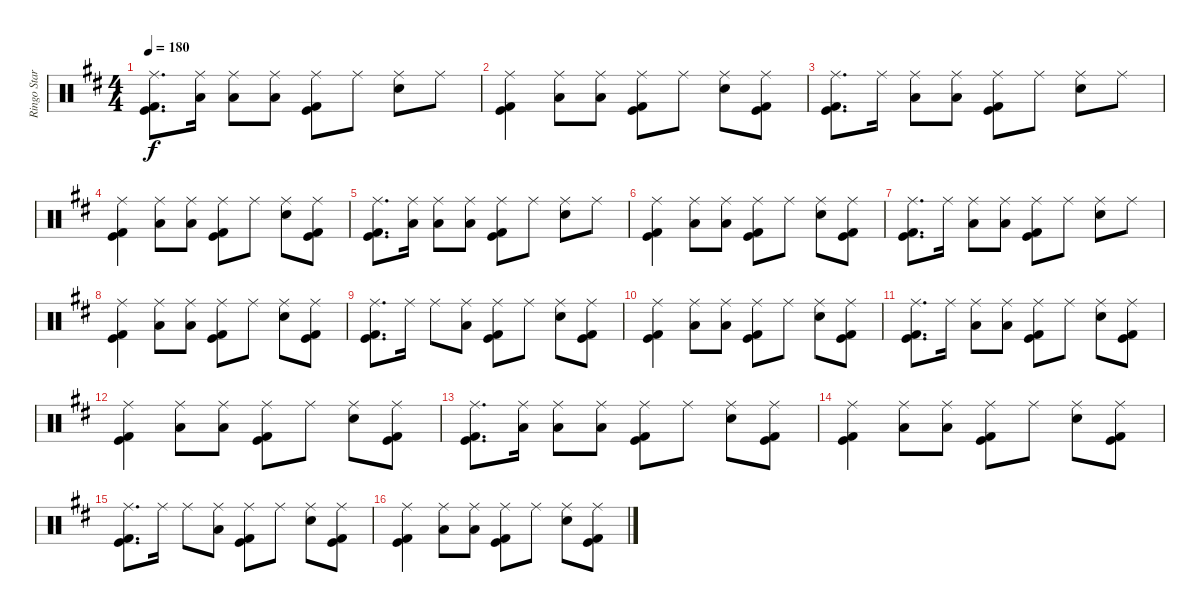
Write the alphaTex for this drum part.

\track ("Ringo Starr" "Ringo Star") {instrument percussion}
\staff {score}
\articulation defaults
\ts (4 4)
\tempo 180
\clef neutral
\ks d
("Ride (middle)" "Kick (hit) 2" "Kick (hit)").8{d dy f} ("Ride (middle)" "Low Tom (hit)").16 ("Ride (middle)" "Low Tom (hit)").8 ("Ride (middle)" "Low Tom (hit)").8 ("Ride (middle)" "Kick (hit) 2" "Kick (hit)").8 "Ride (middle)".8 ("Ride (middle)" "Electric Snare (hit)").8 "Ride (middle)".8 |
("Ride (middle)" "Kick (hit) 2" "Kick (hit)").4 ("Ride (middle)" "Low Tom (hit)").8 ("Ride (middle)" "Low Tom (hit)").8 ("Ride (middle)" "Kick (hit) 2" "Kick (hit)").8 "Ride (middle)".8 ("Ride (middle)" "Electric Snare (hit)").8 ("Ride (middle)" "Kick (hit) 2" "Kick (hit)").8 |
("Ride (middle)" "Kick (hit) 2" "Kick (hit)").8{d} "Ride (middle)".16 ("Ride (middle)" "Low Tom (hit)").8 ("Ride (middle)" "Low Tom (hit)").8 ("Ride (middle)" "Kick (hit) 2" "Kick (hit)").8 "Ride (middle)".8 ("Ride (middle)" "Electric Snare (hit)").8 "Ride (middle)".8 |
("Ride (middle)" "Kick (hit) 2" "Kick (hit)").4 ("Ride (middle)" "Low Tom (hit)").8 ("Ride (middle)" "Low Tom (hit)").8 ("Ride (middle)" "Kick (hit) 2" "Kick (hit)").8 "Ride (middle)".8 ("Ride (middle)" "Electric Snare (hit)").8 ("Ride (middle)" "Kick (hit) 2" "Kick (hit)").8 |
("Ride (middle)" "Kick (hit) 2" "Kick (hit)").8{d} ("Ride (middle)" "Low Tom (hit)").16 ("Ride (middle)" "Low Tom (hit)").8 ("Ride (middle)" "Low Tom (hit)").8 ("Ride (middle)" "Kick (hit) 2" "Kick (hit)").8 "Ride (middle)".8 ("Ride (middle)" "Electric Snare (hit)").8 "Ride (middle)".8 |
("Ride (middle)" "Kick (hit) 2" "Kick (hit)").4 ("Ride (middle)" "Low Tom (hit)").8 ("Ride (middle)" "Low Tom (hit)").8 ("Ride (middle)" "Kick (hit) 2" "Kick (hit)").8 "Ride (middle)".8 ("Ride (middle)" "Electric Snare (hit)").8 ("Ride (middle)" "Kick (hit) 2" "Kick (hit)").8 |
("Ride (middle)" "Kick (hit) 2" "Kick (hit)").8{d} "Ride (middle)".16 ("Ride (middle)" "Low Tom (hit)").8 ("Ride (middle)" "Low Tom (hit)").8 ("Ride (middle)" "Kick (hit) 2" "Kick (hit)").8 "Ride (middle)".8 ("Ride (middle)" "Electric Snare (hit)").8 "Ride (middle)".8 |
("Ride (middle)" "Kick (hit) 2" "Kick (hit)").4 ("Ride (middle)" "Low Tom (hit)").8 ("Ride (middle)" "Low Tom (hit)").8 ("Ride (middle)" "Kick (hit) 2" "Kick (hit)").8 "Ride (middle)".8 ("Ride (middle)" "Electric Snare (hit)").8 ("Ride (middle)" "Kick (hit) 2" "Kick (hit)").8 |
("Ride (middle)" "Kick (hit) 2" "Kick (hit)").8{d} "Ride (middle)".16 "Ride (middle)".8 ("Ride (middle)" "Low Tom (hit)").8 ("Ride (middle)" "Kick (hit) 2" "Kick (hit)").8 "Ride (middle)".8 ("Ride (middle)" "Electric Snare (hit)").8 ("Ride (middle)" "Kick (hit) 2" "Kick (hit)").8 |
("Ride (middle)" "Kick (hit) 2" "Kick (hit)").4 ("Ride (middle)" "Low Tom (hit)").8 ("Ride (middle)" "Low Tom (hit)").8 ("Ride (middle)" "Kick (hit) 2" "Kick (hit)").8 "Ride (middle)".8 ("Ride (middle)" "Electric Snare (hit)").8 ("Ride (middle)" "Kick (hit) 2" "Kick (hit)").8 |
("Ride (middle)" "Kick (hit) 2" "Kick (hit)").8{d} "Ride (middle)".16 ("Ride (middle)" "Low Tom (hit)").8 ("Ride (middle)" "Low Tom (hit)").8 ("Ride (middle)" "Kick (hit) 2" "Kick (hit)").8 "Ride (middle)".8 ("Ride (middle)" "Electric Snare (hit)").8 ("Ride (middle)" "Kick (hit) 2" "Kick (hit)").8 |
("Ride (middle)" "Kick (hit) 2" "Kick (hit)").4 ("Ride (middle)" "Low Tom (hit)").8 ("Ride (middle)" "Low Tom (hit)").8 ("Ride (middle)" "Kick (hit) 2" "Kick (hit)").8 "Ride (middle)".8 ("Ride (middle)" "Electric Snare (hit)").8 ("Ride (middle)" "Kick (hit) 2" "Kick (hit)").8 |
("Ride (middle)" "Kick (hit) 2" "Kick (hit)").8{d} ("Ride (middle)" "Low Tom (hit)").16 ("Ride (middle)" "Low Tom (hit)").8 ("Ride (middle)" "Low Tom (hit)").8 ("Ride (middle)" "Kick (hit) 2" "Kick (hit)").8 "Ride (middle)".8 ("Ride (middle)" "Electric Snare (hit)").8 ("Ride (middle)" "Kick (hit) 2" "Kick (hit)").8 |
("Ride (middle)" "Kick (hit) 2" "Kick (hit)").4 ("Ride (middle)" "Low Tom (hit)").8 ("Ride (middle)" "Low Tom (hit)").8 ("Ride (middle)" "Kick (hit) 2" "Kick (hit)").8 "Ride (middle)".8 ("Ride (middle)" "Electric Snare (hit)").8 ("Ride (middle)" "Kick (hit) 2" "Kick (hit)").8 |
("Ride (middle)" "Kick (hit) 2" "Kick (hit)").8{d} "Ride (middle)".16 "Ride (middle)".8 ("Ride (middle)" "Low Tom (hit)").8 ("Ride (middle)" "Kick (hit) 2" "Kick (hit)").8 "Ride (middle)".8 ("Ride (middle)" "Electric Snare (hit)").8 ("Ride (middle)" "Kick (hit) 2" "Kick (hit)").8 |
("Ride (middle)" "Kick (hit) 2" "Kick (hit)").4 ("Ride (middle)" "Low Tom (hit)").8 ("Ride (middle)" "Low Tom (hit)").8 ("Ride (middle)" "Kick (hit) 2" "Kick (hit)").8 "Ride (middle)".8 ("Ride (middle)" "Electric Snare (hit)").8 ("Ride (middle)" "Kick (hit) 2" "Kick (hit)").8
